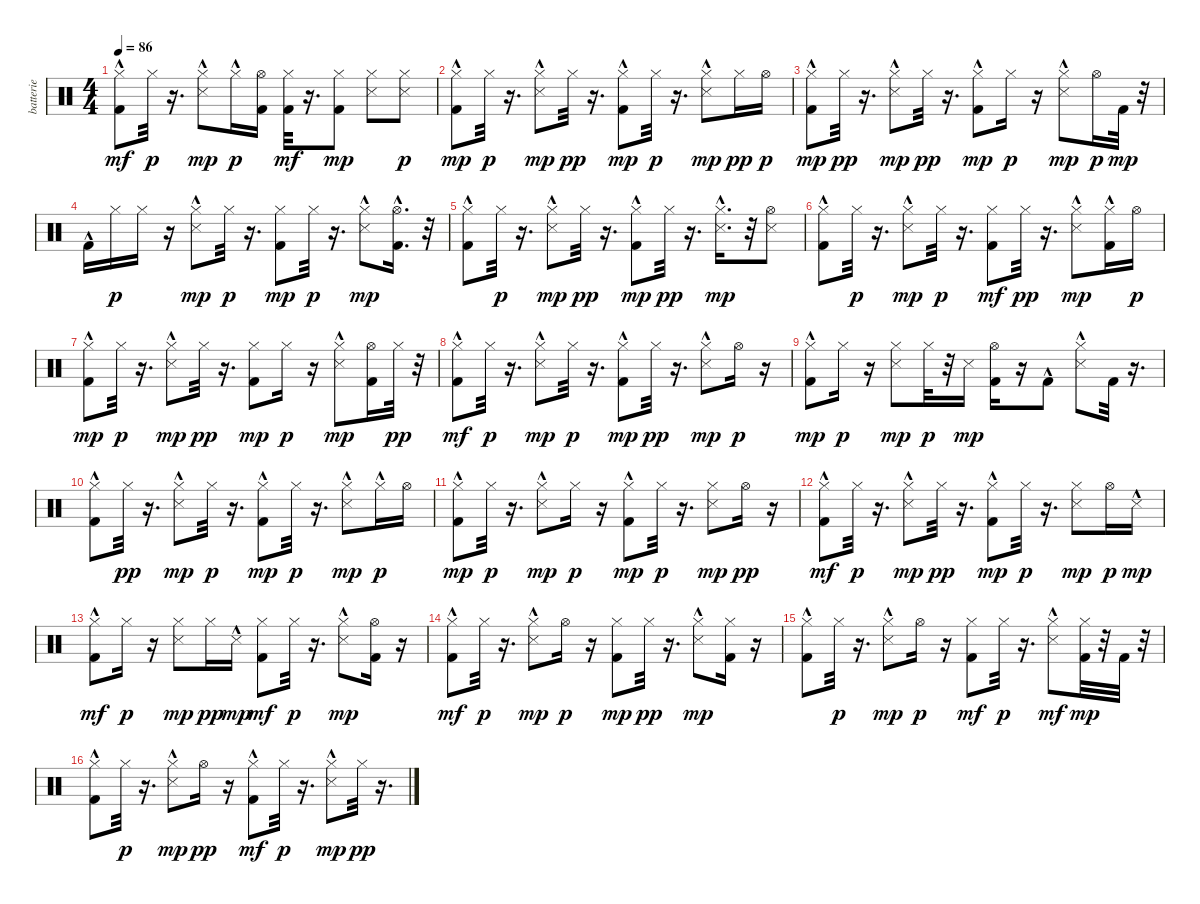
\track ("batterie" "batterie") {instrument percussion}
\staff {score}
\articulation defaults
\ts (4 4)
\tempo 86
\clef neutral
\ks c
("Hi-Hat (closed)" "Kick (hit) 2"{hac}).8{dy mf} "Hi-Hat (closed)".32{dy p} r.16{d} ("Hi-Hat (closed)" "Snare (side stick) 3"{hac}).8{dy mp} "Hi-Hat (closed)"{hac}.16{dy p} ("Hi-Hat (open)" "Kick (hit) 2").16 ("Hi-Hat (closed)" "Kick (hit) 2").32{dy mf} r.16{d} ("Hi-Hat (closed)" "Kick (hit) 2").8{dy mp} ("Hi-Hat (closed)" "Snare (side stick) 3").8 ("Hi-Hat (closed)" "Snare (side stick) 3").8{dy p} |
("Hi-Hat (closed)" "Kick (hit) 2"{hac}).8{dy mp} "Hi-Hat (closed)".32{dy p} r.16{d} ("Hi-Hat (closed)" "Snare (side stick) 3"{hac}).8{dy mp} "Hi-Hat (closed)".32{dy pp} r.16{d} ("Hi-Hat (closed)" "Kick (hit) 2"{hac}).8{dy mp} "Hi-Hat (closed)".32{dy p} r.16{d} ("Hi-Hat (closed)" "Snare (side stick) 3"{hac}).8{dy mp} "Hi-Hat (closed)".16{dy pp} "Hi-Hat (open)".16{dy p} |
("Hi-Hat (closed)" "Kick (hit) 2"{hac}).8{dy mp} "Hi-Hat (closed)".32{dy pp} r.16{d} ("Hi-Hat (closed)" "Snare (side stick) 3"{hac}).8{dy mp} "Hi-Hat (closed)".32{dy pp} r.16{d} ("Hi-Hat (closed)" "Kick (hit) 2"{hac}).8{dy mp} "Hi-Hat (closed)".16{dy p} r.16 ("Hi-Hat (closed)" "Snare (side stick) 3"{hac}).8{dy mp} "Hi-Hat (open)".16{dy p} "Kick (hit) 2".32{dy mp} r.32 |
"Kick (hit) 2"{hac}.16 "Hi-Hat (closed)".16{dy p} "Hi-Hat (closed)".16 r.16 ("Hi-Hat (closed)" "Snare (side stick) 3"{hac}).8{dy mp} "Hi-Hat (closed)".32{dy p} r.16{d} ("Hi-Hat (closed)" "Kick (hit) 2").8{dy mp} "Hi-Hat (closed)".32{dy p} r.16{d} ("Hi-Hat (closed)" "Snare (side stick) 3"{hac}).8{dy mp} ("Hi-Hat (open)" "Kick (hit) 2"{hac}).16{d} r.32 |
("Hi-Hat (closed)" "Kick (hit) 2"{hac}).8 "Hi-Hat (closed)".32{dy p} r.16{d} ("Hi-Hat (closed)" "Snare (side stick) 3"{hac}).8{dy mp} "Hi-Hat (closed)".32{dy pp} r.16{d} ("Hi-Hat (closed)" "Kick (hit) 2"{hac}).8{dy mp} "Hi-Hat (closed)".32{dy pp} r.16{d} ("Hi-Hat (closed)" "Snare (side stick) 3"{hac}).16{d dy mp} r.32 ("Hi-Hat (open)" "Snare (side stick) 3").8 |
("Hi-Hat (closed)" "Kick (hit) 2"{hac}).8 "Hi-Hat (closed)".32{dy p} r.16{d} ("Hi-Hat (closed)" "Snare (side stick) 3"{hac}).8{dy mp} "Hi-Hat (closed)".32{dy p} r.16{d} ("Hi-Hat (closed)" "Kick (hit) 2").8{dy mf} "Hi-Hat (closed)".32{dy pp} r.16{d} ("Hi-Hat (closed)" "Snare (side stick) 3"{hac}).8{dy mp} ("Hi-Hat (closed)"{hac} "Kick (hit) 2").16 "Hi-Hat (open)".16{dy p} |
("Hi-Hat (closed)" "Kick (hit) 2"{hac}).8{dy mp} "Hi-Hat (closed)".32{dy p} r.16{d} ("Hi-Hat (closed)" "Snare (side stick) 3"{hac}).8{dy mp} "Hi-Hat (closed)".32{dy pp} r.16{d} ("Hi-Hat (closed)" "Kick (hit) 2").8{dy mp} "Hi-Hat (closed)".16{dy p} r.16 ("Hi-Hat (closed)" "Snare (side stick) 3"{hac}).8{dy mp} ("Hi-Hat (open)" "Kick (hit) 2").16 "Hi-Hat (closed)".32{dy pp} r.32 |
("Hi-Hat (closed)" "Kick (hit) 2"{hac}).8{dy mf} "Hi-Hat (closed)".32{dy p} r.16{d} ("Hi-Hat (closed)" "Snare (side stick) 3"{hac}).8{dy mp} "Hi-Hat (closed)".32{dy p} r.16{d} ("Hi-Hat (closed)" "Kick (hit) 2"{hac}).8{dy mp} "Hi-Hat (closed)".32{dy pp} r.16{d} ("Hi-Hat (closed)" "Snare (side stick) 3"{hac}).8{dy mp} "Hi-Hat (open)".16{dy p} r.16 |
("Hi-Hat (closed)" "Kick (hit) 2"{hac}).8{dy mp} "Hi-Hat (closed)".16{dy p} r.16 ("Hi-Hat (closed)" "Snare (side stick) 3").8{dy mp} "Hi-Hat (closed)".32{dy p} r.32 "Snare (side stick) 3".16{dy mp} ("Hi-Hat (open)" "Kick (hit) 2").16 r.16 "Kick (hit) 2"{hac}.8 ("Hi-Hat (closed)" "Snare (side stick) 3"{hac}).8 "Kick (hit) 2".32 r.16{d} |
("Hi-Hat (closed)" "Kick (hit) 2"{hac}).8 "Hi-Hat (closed)".32{dy pp} r.16{d} ("Hi-Hat (closed)" "Snare (side stick) 3"{hac}).8{dy mp} "Hi-Hat (closed)".32{dy p} r.16{d} ("Hi-Hat (closed)" "Kick (hit) 2"{hac}).8{dy mp} "Hi-Hat (closed)".32{dy p} r.16{d} ("Hi-Hat (closed)" "Snare (side stick) 3"{hac}).8{dy mp} "Hi-Hat (closed)"{hac}.16{dy p} "Hi-Hat (open)".16 |
("Hi-Hat (closed)"{hac} "Kick (hit) 2"{hac}).8{dy mp} "Hi-Hat (closed)".32{dy p} r.16{d} ("Hi-Hat (closed)" "Snare (side stick) 3"{hac}).8{dy mp} "Hi-Hat (closed)".16{dy p} r.16 ("Hi-Hat (closed)" "Kick (hit) 2"{hac}).8{dy mp} "Hi-Hat (closed)".32{dy p} r.16{d} ("Hi-Hat (closed)" "Snare (side stick) 3").8{dy mp} "Hi-Hat (open)".16{dy pp} r.16 |
("Hi-Hat (closed)" "Kick (hit) 2"{hac}).8{dy mf} "Hi-Hat (closed)".32{dy p} r.16{d} ("Hi-Hat (closed)" "Snare (side stick) 3"{hac}).8{dy mp} "Hi-Hat (closed)".32{dy pp} r.16{d} ("Hi-Hat (closed)" "Kick (hit) 2"{hac}).8{dy mp} "Hi-Hat (closed)".32{dy p} r.16{d} ("Hi-Hat (closed)" "Snare (side stick) 3").8{dy mp} "Hi-Hat (open)".16{dy p} "Snare (side stick) 3"{hac}.16{dy mp} |
("Hi-Hat (closed)" "Kick (hit) 2"{hac}).8{dy mf} "Hi-Hat (closed)".16{dy p} r.16 ("Hi-Hat (closed)" "Snare (side stick) 3").8{dy mp} "Hi-Hat (closed)".16{dy pp} "Snare (side stick) 3"{hac}.16{dy mp} ("Hi-Hat (closed)" "Kick (hit) 2").8{dy mf} "Hi-Hat (closed)".32{dy p} r.16{d} ("Hi-Hat (closed)" "Snare (side stick) 3"{hac}).8{dy mp} ("Hi-Hat (open)" "Kick (hit) 2").16 r.16 |
("Hi-Hat (closed)" "Kick (hit) 2"{hac}).8{dy mf} "Hi-Hat (closed)".32{dy p} r.16{d} ("Hi-Hat (closed)" "Snare (side stick) 3"{hac}).8{dy mp} "Hi-Hat (open)".16{dy p} r.16 ("Hi-Hat (closed)" "Kick (hit) 2").8{dy mp} "Hi-Hat (closed)".32{dy pp} r.16{d} ("Hi-Hat (closed)" "Snare (side stick) 3"{hac}).8{dy mp} ("Hi-Hat (closed)" "Kick (hit) 2").16 r.16 |
("Hi-Hat (closed)" "Kick (hit) 2"{hac}).8 "Hi-Hat (closed)".32{dy p} r.16{d} ("Hi-Hat (closed)" "Snare (side stick) 3"{hac}).8{dy mp} "Hi-Hat (open)".16{dy p} r.16 ("Hi-Hat (closed)" "Kick (hit) 2").8{dy mf} "Hi-Hat (closed)".32{dy p} r.16{d} ("Hi-Hat (closed)" "Snare (side stick) 3"{hac}).8{dy mf} ("Hi-Hat (closed)" "Kick (hit) 2").32{dy mp} r.32 "Kick (hit) 2".32 r.32 |
("Hi-Hat (closed)" "Kick (hit) 2"{hac}).8 "Hi-Hat (closed)".32{dy p} r.16{d} ("Hi-Hat (closed)" "Snare (side stick) 3"{hac}).8{dy mp} "Hi-Hat (open)".16{dy pp} r.16 ("Hi-Hat (closed)" "Kick (hit) 2"{hac}).8{dy mf} "Hi-Hat (closed)".32{dy p} r.16{d} ("Hi-Hat (closed)" "Snare (side stick) 3"{hac}).8{dy mp} "Hi-Hat (closed)".32{dy pp} r.16{d}
